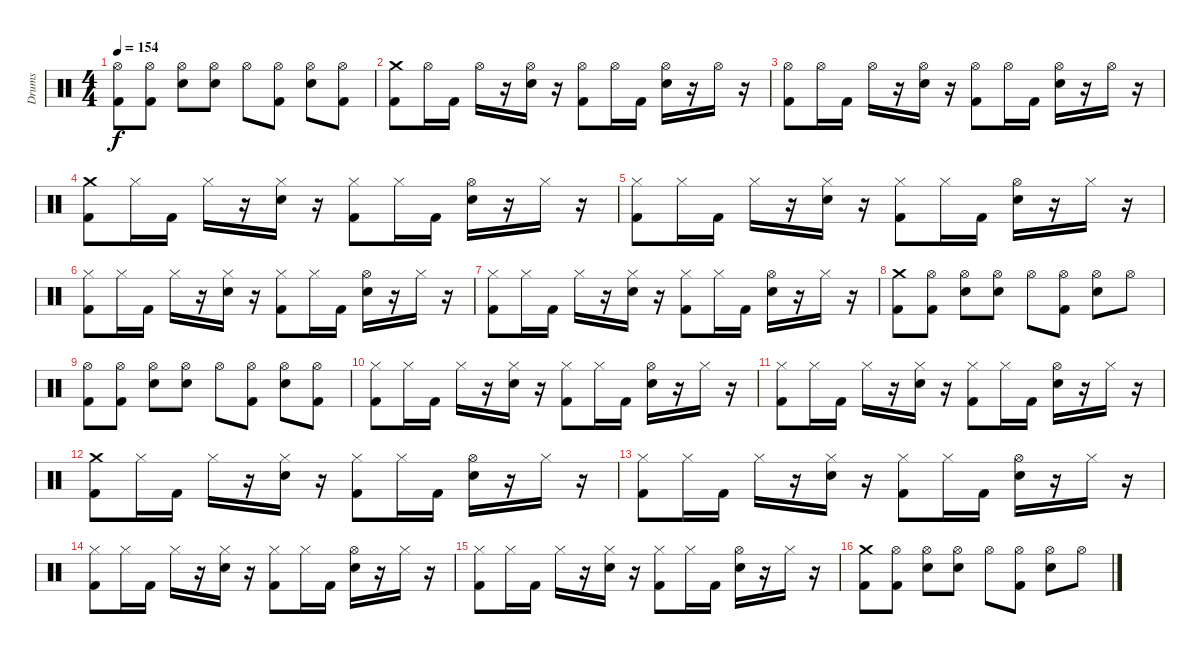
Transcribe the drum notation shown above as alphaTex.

\track ("Drums" "Drums") {instrument percussion}
\staff {score}
\articulation defaults
\ts (4 4)
\tempo 154
\clef neutral
\ks c
("Kick (hit) 2" "Hi-Hat (open)").8{dy f} ("Kick (hit) 2" "Hi-Hat (open)").8 ("Electric Snare (hit)" "Hi-Hat (open)").8 ("Electric Snare (hit)" "Hi-Hat (open)").8 "Hi-Hat (open)".8 ("Kick (hit) 2" "Hi-Hat (open)").8 ("Electric Snare (hit)" "Hi-Hat (open)").8 ("Kick (hit) 2" "Hi-Hat (open)").8 |
("Kick (hit) 2" "Crash medium (hit)").8 "Hi-Hat (open)".16 "Kick (hit) 2".16 "Hi-Hat (open)".16 r.16 ("Electric Snare (hit)" "Hi-Hat (open)").16 r.16 ("Kick (hit) 2" "Hi-Hat (open)").8 "Hi-Hat (open)".16 "Kick (hit) 2".16 ("Electric Snare (hit)" "Hi-Hat (open)").16 r.16 "Hi-Hat (open)".16 r.16 |
("Kick (hit) 2" "Hi-Hat (open)").8 "Hi-Hat (open)".16 "Kick (hit) 2".16 "Hi-Hat (open)".16 r.16 ("Electric Snare (hit)" "Hi-Hat (open)").16 r.16 ("Kick (hit) 2" "Hi-Hat (open)").8 "Hi-Hat (open)".16 "Kick (hit) 2".16 ("Electric Snare (hit)" "Hi-Hat (open)").16 r.16 "Hi-Hat (open)".16 r.16 |
("Kick (hit) 2" "Crash medium (hit)").8 "Hi-Hat (closed)".16 "Kick (hit) 2".16 "Hi-Hat (closed)".16 r.16 ("Electric Snare (hit)" "Hi-Hat (closed)").16 r.16 ("Kick (hit) 2" "Hi-Hat (closed)").8 "Hi-Hat (closed)".16 "Kick (hit) 2".16 ("Electric Snare (hit)" "Hi-Hat (open)").16 r.16 "Hi-Hat (closed)".16 r.16 |
("Kick (hit) 2" "Hi-Hat (closed)").8 "Hi-Hat (closed)".16 "Kick (hit) 2".16 "Hi-Hat (closed)".16 r.16 ("Electric Snare (hit)" "Hi-Hat (closed)").16 r.16 ("Kick (hit) 2" "Hi-Hat (closed)").8 "Hi-Hat (closed)".16 "Kick (hit) 2".16 ("Electric Snare (hit)" "Hi-Hat (open)").16 r.16 "Hi-Hat (closed)".16 r.16 |
("Kick (hit) 2" "Hi-Hat (closed)").8 "Hi-Hat (closed)".16 "Kick (hit) 2".16 "Hi-Hat (closed)".16 r.16 ("Electric Snare (hit)" "Hi-Hat (closed)").16 r.16 ("Kick (hit) 2" "Hi-Hat (closed)").8 "Hi-Hat (closed)".16 "Kick (hit) 2".16 ("Electric Snare (hit)" "Hi-Hat (open)").16 r.16 "Hi-Hat (closed)".16 r.16 |
("Kick (hit) 2" "Hi-Hat (closed)").8 "Hi-Hat (closed)".16 "Kick (hit) 2".16 "Hi-Hat (closed)".16 r.16 ("Electric Snare (hit)" "Hi-Hat (closed)").16 r.16 ("Kick (hit) 2" "Hi-Hat (closed)").8 "Hi-Hat (closed)".16 "Kick (hit) 2".16 ("Electric Snare (hit)" "Hi-Hat (open)").16 r.16 "Hi-Hat (closed)".16 r.16 |
("Kick (hit) 2" "Crash medium (hit)").8 ("Kick (hit) 2" "Hi-Hat (open)").8 ("Electric Snare (hit)" "Hi-Hat (open)").8 ("Electric Snare (hit)" "Hi-Hat (open)").8 "Hi-Hat (open)".8 ("Kick (hit) 2" "Hi-Hat (open)").8 ("Electric Snare (hit)" "Hi-Hat (open)").8 "Hi-Hat (open)".8 |
("Kick (hit) 2" "Hi-Hat (open)").8 ("Kick (hit) 2" "Hi-Hat (open)").8 ("Electric Snare (hit)" "Hi-Hat (open)").8 ("Electric Snare (hit)" "Hi-Hat (open)").8 "Hi-Hat (open)".8 ("Kick (hit) 2" "Hi-Hat (open)").8 ("Electric Snare (hit)" "Hi-Hat (open)").8 ("Kick (hit) 2" "Hi-Hat (open)").8 |
("Kick (hit) 2" "Hi-Hat (closed)").8 "Hi-Hat (closed)".16 "Kick (hit) 2".16 "Hi-Hat (closed)".16 r.16 ("Electric Snare (hit)" "Hi-Hat (closed)").16 r.16 ("Kick (hit) 2" "Hi-Hat (closed)").8 "Hi-Hat (closed)".16 "Kick (hit) 2".16 ("Electric Snare (hit)" "Hi-Hat (open)").16 r.16 "Hi-Hat (closed)".16 r.16 |
("Kick (hit) 2" "Hi-Hat (closed)").8 "Hi-Hat (closed)".16 "Kick (hit) 2".16 "Hi-Hat (closed)".16 r.16 ("Electric Snare (hit)" "Hi-Hat (closed)").16 r.16 ("Kick (hit) 2" "Hi-Hat (closed)").8 "Hi-Hat (closed)".16 "Kick (hit) 2".16 ("Electric Snare (hit)" "Hi-Hat (open)").16 r.16 "Hi-Hat (closed)".16 r.16 |
("Kick (hit) 2" "Crash medium (hit)").8 "Hi-Hat (closed)".16 "Kick (hit) 2".16 "Hi-Hat (closed)".16 r.16 ("Electric Snare (hit)" "Hi-Hat (closed)").16 r.16 ("Kick (hit) 2" "Hi-Hat (closed)").8 "Hi-Hat (closed)".16 "Kick (hit) 2".16 ("Electric Snare (hit)" "Hi-Hat (open)").16 r.16 "Hi-Hat (closed)".16 r.16 |
("Kick (hit) 2" "Hi-Hat (closed)").8 "Hi-Hat (closed)".16 "Kick (hit) 2".16 "Hi-Hat (closed)".16 r.16 ("Electric Snare (hit)" "Hi-Hat (closed)").16 r.16 ("Kick (hit) 2" "Hi-Hat (closed)").8 "Hi-Hat (closed)".16 "Kick (hit) 2".16 ("Electric Snare (hit)" "Hi-Hat (open)").16 r.16 "Hi-Hat (closed)".16 r.16 |
("Kick (hit) 2" "Hi-Hat (closed)").8 "Hi-Hat (closed)".16 "Kick (hit) 2".16 "Hi-Hat (closed)".16 r.16 ("Electric Snare (hit)" "Hi-Hat (closed)").16 r.16 ("Kick (hit) 2" "Hi-Hat (closed)").8 "Hi-Hat (closed)".16 "Kick (hit) 2".16 ("Electric Snare (hit)" "Hi-Hat (open)").16 r.16 "Hi-Hat (closed)".16 r.16 |
("Kick (hit) 2" "Hi-Hat (closed)").8 "Hi-Hat (closed)".16 "Kick (hit) 2".16 "Hi-Hat (closed)".16 r.16 ("Electric Snare (hit)" "Hi-Hat (closed)").16 r.16 ("Kick (hit) 2" "Hi-Hat (closed)").8 "Hi-Hat (closed)".16 "Kick (hit) 2".16 ("Electric Snare (hit)" "Hi-Hat (open)").16 r.16 "Hi-Hat (closed)".16 r.16 |
("Kick (hit) 2" "Crash medium (hit)").8 ("Kick (hit) 2" "Hi-Hat (open)").8 ("Electric Snare (hit)" "Hi-Hat (open)").8 ("Electric Snare (hit)" "Hi-Hat (open)").8 "Hi-Hat (open)".8 ("Kick (hit) 2" "Hi-Hat (open)").8 ("Electric Snare (hit)" "Hi-Hat (open)").8 "Hi-Hat (open)".8
